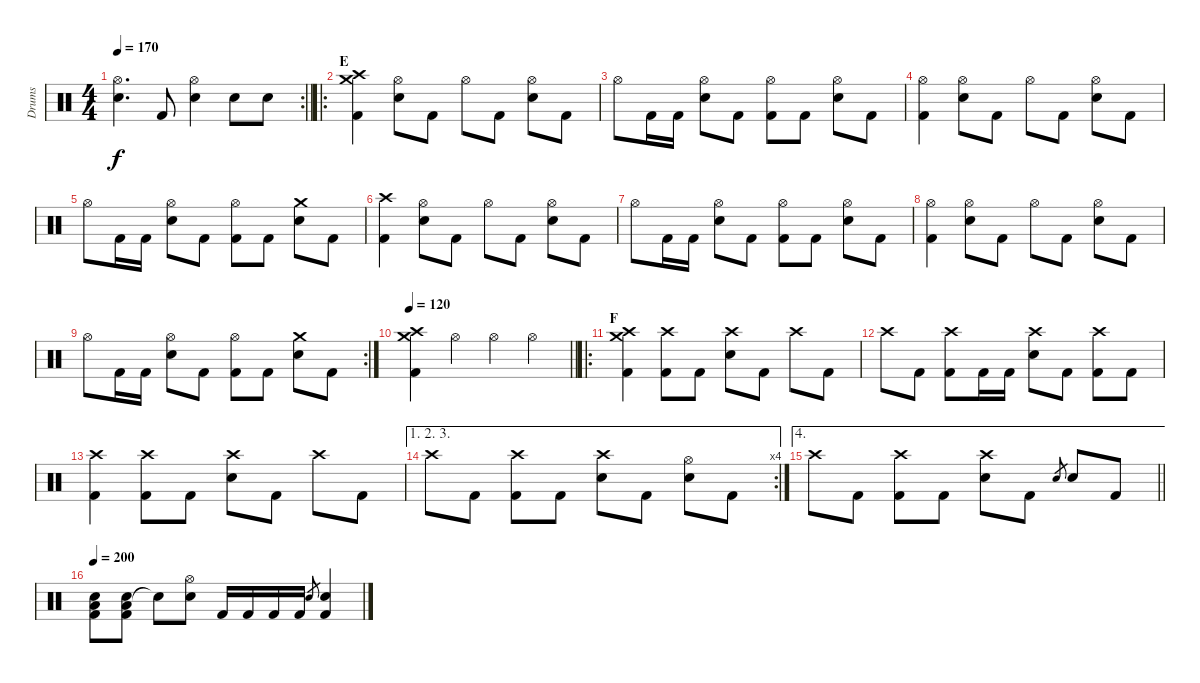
\track ("Drums" "Drums") {instrument percussion}
\staff {score}
\articulation defaults
\rc 2
\ts (4 4)
\tempo 170
\clef neutral
\barLineRight lightlight
\ks c
("Hi-Hat (open)" "Electric Snare (hit)").4{d dy f} "Kick (hit) 2".8 ("Hi-Hat (open)" "Electric Snare (hit)").4 "Electric Snare (hit)".8 "Electric Snare (hit)".8 |
\ro
\section ("" "E")
("Crash medium (hit)" "Crash high (hit)" "Kick (hit) 2").4 ("Hi-Hat (open)" "Electric Snare (hit)").8 "Kick (hit) 2".8 "Hi-Hat (open)".8 "Kick (hit) 2".8 ("Hi-Hat (open)" "Electric Snare (hit)").8 "Kick (hit) 2".8 |
"Hi-Hat (open)".8 "Kick (hit) 2".16 "Kick (hit) 2".16 ("Hi-Hat (open)" "Electric Snare (hit)").8 "Kick (hit) 2".8 ("Hi-Hat (open)" "Kick (hit) 2").8 "Kick (hit) 2".8 ("Hi-Hat (open)" "Electric Snare (hit)").8 "Kick (hit) 2".8 |
("Hi-Hat (open)" "Kick (hit) 2").4 ("Hi-Hat (open)" "Electric Snare (hit)").8 "Kick (hit) 2".8 "Hi-Hat (open)".8 "Kick (hit) 2".8 ("Hi-Hat (open)" "Electric Snare (hit)").8 "Kick (hit) 2".8 |
"Hi-Hat (open)".8 "Kick (hit) 2".16 "Kick (hit) 2".16 ("Hi-Hat (open)" "Electric Snare (hit)").8 "Kick (hit) 2".8 ("Hi-Hat (open)" "Kick (hit) 2").8 "Kick (hit) 2".8 ("Crash medium (hit)" "Electric Snare (hit)").8 "Kick (hit) 2".8 |
("Crash high (hit)" "Kick (hit) 2").4 ("Hi-Hat (open)" "Electric Snare (hit)").8 "Kick (hit) 2".8 "Hi-Hat (open)".8 "Kick (hit) 2".8 ("Hi-Hat (open)" "Electric Snare (hit)").8 "Kick (hit) 2".8 |
"Hi-Hat (open)".8 "Kick (hit) 2".16 "Kick (hit) 2".16 ("Hi-Hat (open)" "Electric Snare (hit)").8 "Kick (hit) 2".8 ("Hi-Hat (open)" "Kick (hit) 2").8 "Kick (hit) 2".8 ("Hi-Hat (open)" "Electric Snare (hit)").8 "Kick (hit) 2".8 |
("Hi-Hat (open)" "Kick (hit) 2").4 ("Hi-Hat (open)" "Electric Snare (hit)").8 "Kick (hit) 2".8 "Hi-Hat (open)".8 "Kick (hit) 2".8 ("Hi-Hat (open)" "Electric Snare (hit)").8 "Kick (hit) 2".8 |
\rc 2 "Hi-Hat (open)".8 "Kick (hit) 2".16 "Kick (hit) 2".16
("Hi-Hat (open)" "Electric Snare (hit)").8 "Kick (hit) 2".8 ("Hi-Hat (open)" "Kick (hit) 2").8 "Kick (hit) 2".8 ("Crash medium (hit)" "Electric Snare (hit)").8 "Kick (hit) 2".8 |
\tempo 120
\barLineRight lightlight
("Crash medium (hit)" "Crash high (hit)" "Kick (hit) 2").4 "Hi-Hat (open)".4 "Hi-Hat (open)".4 "Hi-Hat (open)".4 |
\ro
\section ("" "F")
("Crash medium (hit)" "Crash high (hit)" "Kick (hit) 2").4 ("Crash high (hit)" "Kick (hit) 2").8 "Kick (hit) 2".8 ("Crash high (hit)" "Electric Snare (hit)").8 "Kick (hit) 2".8 "Crash high (hit)".8 "Kick (hit) 2".8 |
"Crash high (hit)".8 "Kick (hit) 2".8 ("Crash high (hit)" "Kick (hit) 2").8 "Kick (hit) 2".16 "Kick (hit) 2".16 ("Crash high (hit)" "Electric Snare (hit)").8 "Kick (hit) 2".8 ("Crash high (hit)" "Kick (hit) 2").8 "Kick (hit) 2".8 |
("Crash high (hit)" "Kick (hit) 2").4 ("Crash high (hit)" "Kick (hit) 2").8 "Kick (hit) 2".8 ("Crash high (hit)" "Electric Snare (hit)").8 "Kick (hit) 2".8 "Crash high (hit)".8 "Kick (hit) 2".8 |
\ae (1 2 3)
\rc 4 "Crash high (hit)".8 "Kick (hit) 2".8
("Crash high (hit)" "Kick (hit) 2").8 "Kick (hit) 2".8 ("Crash high (hit)" "Electric Snare (hit)").8 "Kick (hit) 2".8 ("Hi-Hat (open)" "Electric Snare (hit)").8 "Kick (hit) 2".8 |
\ae 4
\barLineRight lightlight "Crash high (hit)".8 "Kick (hit) 2".8
("Crash high (hit)" "Kick (hit) 2").8 "Kick (hit) 2".8 ("Crash high (hit)" "Electric Snare (hit)").8 "Kick (hit) 2".8 "Electric Snare (hit)".8{gr} "Electric Snare (hit)".8 "Kick (hit) 2".8 |
\tempo 200
("Low Tom (hit)" "Electric Snare (hit)" "Kick (hit) 2").8 ("Low Tom (hit)" "Electric Snare (hit)" "Kick (hit) 2").8 "Snare (hit)"{t}.8 ("Hi-Hat (open)" "Electric Snare (hit)").8 "Kick (hit) 2".16 "Kick (hit) 2".16 "Kick (hit) 2".16 "Kick (hit) 2".16 "Electric Snare (hit)".8{gr} ("Electric Snare (hit)" "Kick (hit) 2").4
